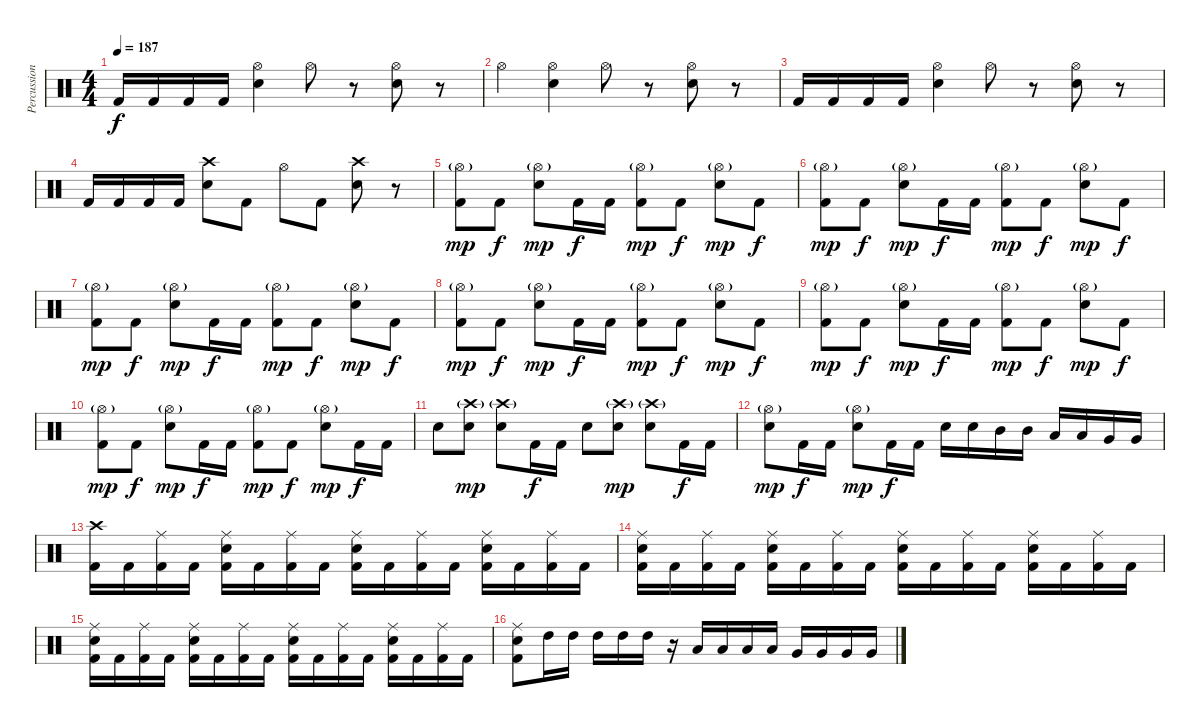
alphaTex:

\track ("Percussion" "Percussion") {instrument percussion}
\staff {score}
\articulation defaults
\ts (4 4)
\tempo 187
\clef neutral
\ks c "Kick (hit) 2".16{dy f} "Kick (hit) 2".16 "Kick (hit) 2".16 "Kick (hit) 2".16
("Snare (hit) 2" "Hi-Hat (open)").4 "Hi-Hat (open)".8 r.8 ("Snare (hit) 2" "Hi-Hat (open)").8 r.8 |
"Hi-Hat (open)".4 ("Snare (hit) 2" "Hi-Hat (open)").4 "Hi-Hat (open)".8 r.8 ("Snare (hit) 2" "Hi-Hat (open)").8 r.8 |
"Kick (hit) 2".16 "Kick (hit) 2".16 "Kick (hit) 2".16 "Kick (hit) 2".16 ("Snare (hit) 2" "Hi-Hat (open)").4 "Hi-Hat (open)".8 r.8 ("Snare (hit) 2" "Hi-Hat (open)").8 r.8 |
"Kick (hit) 2".16 "Kick (hit) 2".16 "Kick (hit) 2".16 "Kick (hit) 2".16 ("Snare (hit) 2" "Crash high (hit)").8 "Kick (hit) 2".8 "Hi-Hat (open)".8 "Kick (hit) 2".8 ("Snare (hit) 2" "Crash high (hit)").8 r.8 |
("Kick (hit) 2" "Hi-Hat (open)"{g}).8{dy mp volume 13} "Kick (hit) 2".8{dy f} ("Snare (hit) 2" "Hi-Hat (open)"{g}).8{dy mp} "Kick (hit) 2".16{dy f} "Kick (hit) 2".16 ("Kick (hit) 2" "Hi-Hat (open)"{g}).8{dy mp} "Kick (hit) 2".8{dy f} ("Snare (hit) 2" "Hi-Hat (open)"{g}).8{dy mp} "Kick (hit) 2".8{dy f} |
("Kick (hit) 2" "Hi-Hat (open)"{g}).8{dy mp} "Kick (hit) 2".8{dy f} ("Snare (hit) 2" "Hi-Hat (open)"{g}).8{dy mp} "Kick (hit) 2".16{dy f} "Kick (hit) 2".16 ("Kick (hit) 2" "Hi-Hat (open)"{g}).8{dy mp} "Kick (hit) 2".8{dy f} ("Snare (hit) 2" "Hi-Hat (open)"{g}).8{dy mp} "Kick (hit) 2".8{dy f} |
("Kick (hit) 2" "Hi-Hat (open)"{g}).8{dy mp} "Kick (hit) 2".8{dy f} ("Snare (hit) 2" "Hi-Hat (open)"{g}).8{dy mp} "Kick (hit) 2".16{dy f} "Kick (hit) 2".16 ("Kick (hit) 2" "Hi-Hat (open)"{g}).8{dy mp} "Kick (hit) 2".8{dy f} ("Snare (hit) 2" "Hi-Hat (open)"{g}).8{dy mp} "Kick (hit) 2".8{dy f} |
("Kick (hit) 2" "Hi-Hat (open)"{g}).8{dy mp} "Kick (hit) 2".8{dy f} ("Snare (hit) 2" "Hi-Hat (open)"{g}).8{dy mp} "Kick (hit) 2".16{dy f} "Kick (hit) 2".16 ("Kick (hit) 2" "Hi-Hat (open)"{g}).8{dy mp} "Kick (hit) 2".8{dy f} ("Snare (hit) 2" "Hi-Hat (open)"{g}).8{dy mp} "Kick (hit) 2".8{dy f} |
("Kick (hit) 2" "Hi-Hat (open)"{g}).8{dy mp} "Kick (hit) 2".8{dy f} ("Snare (hit) 2" "Hi-Hat (open)"{g}).8{dy mp} "Kick (hit) 2".16{dy f} "Kick (hit) 2".16 ("Kick (hit) 2" "Hi-Hat (open)"{g}).8{dy mp} "Kick (hit) 2".8{dy f} ("Snare (hit) 2" "Hi-Hat (open)"{g}).8{dy mp} "Kick (hit) 2".8{dy f} |
("Kick (hit) 2" "Hi-Hat (open)"{g}).8{dy mp} "Kick (hit) 2".8{dy f} ("Snare (hit) 2" "Hi-Hat (open)"{g}).8{dy mp} "Kick (hit) 2".16{dy f} "Kick (hit) 2".16 ("Kick (hit) 2" "Hi-Hat (open)"{g}).8{dy mp} "Kick (hit) 2".8{dy f} ("Snare (hit) 2" "Hi-Hat (open)"{g}).8{dy mp} "Kick (hit) 2".16{dy f} "Kick (hit) 2".16 |
"Snare (hit) 2".8 ("Crash high (hit)"{g} "Snare (hit) 2").8{dy mp} ("Crash high (hit)"{g} "Snare (hit) 2").8 "Kick (hit) 2".16{dy f} "Kick (hit) 2".16 "Snare (hit) 2".8 ("Crash high (hit)"{g} "Snare (hit) 2").8{dy mp} ("Crash high (hit)"{g} "Snare (hit) 2").8 "Kick (hit) 2".16{dy f} "Kick (hit) 2".16 |
("Snare (hit) 2" "Hi-Hat (open)"{g}).8{dy mp} "Kick (hit) 2".16{dy f} "Kick (hit) 2".16 ("Snare (hit) 2" "Hi-Hat (open)"{g}).8{dy mp} "Kick (hit) 2".16{dy f} "Kick (hit) 2".16 "Snare (hit) 2".16 "Snare (hit) 2".16 "Mid Tom (hit)".16 "Mid Tom (hit)".16 "Low Tom (hit)".16 "Low Tom (hit)".16 "Very Low Tom (hit)".16 "Very Low Tom (hit)".16 |
("Kick (hit) 2" "Crash high (hit)").16 "Kick (hit) 2".16 ("Kick (hit) 2" "Ride (middle)").16 "Kick (hit) 2".16 ("Kick (hit) 2" "Snare (hit) 2" "Ride (middle)").16 "Kick (hit) 2".16 ("Kick (hit) 2" "Ride (middle)").16 "Kick (hit) 2".16 ("Kick (hit) 2" "Snare (hit) 2" "Ride (middle)").16 "Kick (hit) 2".16 ("Kick (hit) 2" "Ride (middle)").16 "Kick (hit) 2".16 ("Kick (hit) 2" "Snare (hit) 2" "Ride (middle)").16 "Kick (hit) 2".16 ("Kick (hit) 2" "Ride (middle)").16 "Kick (hit) 2".16 |
("Kick (hit) 2" "Snare (hit) 2" "Ride (middle)").16 "Kick (hit) 2".16 ("Kick (hit) 2" "Ride (middle)").16 "Kick (hit) 2".16 ("Kick (hit) 2" "Snare (hit) 2" "Ride (middle)").16 "Kick (hit) 2".16 ("Kick (hit) 2" "Ride (middle)").16 "Kick (hit) 2".16 ("Kick (hit) 2" "Snare (hit) 2" "Ride (middle)").16 "Kick (hit) 2".16 ("Kick (hit) 2" "Ride (middle)").16 "Kick (hit) 2".16 ("Kick (hit) 2" "Snare (hit) 2" "Ride (middle)").16 "Kick (hit) 2".16 ("Kick (hit) 2" "Ride (middle)").16 "Kick (hit) 2".16 |
("Kick (hit) 2" "Snare (hit) 2" "Ride (middle)").16 "Kick (hit) 2".16 ("Kick (hit) 2" "Ride (middle)").16 "Kick (hit) 2".16 ("Kick (hit) 2" "Snare (hit) 2" "Ride (middle)").16 "Kick (hit) 2".16 ("Kick (hit) 2" "Ride (middle)").16 "Kick (hit) 2".16 ("Kick (hit) 2" "Snare (hit) 2" "Ride (middle)").16 "Kick (hit) 2".16 ("Kick (hit) 2" "Ride (middle)").16 "Kick (hit) 2".16 ("Kick (hit) 2" "Snare (hit) 2" "Ride (middle)").16 "Kick (hit) 2".16 ("Kick (hit) 2" "Ride (middle)").16 "Kick (hit) 2".16 |
("Kick (hit) 2" "Snare (hit) 2" "Ride (middle)").8 "High Tom (hit)".16 "High Tom (hit)".16 "High Tom (hit)".16 "High Tom (hit)".16 "High Tom (hit)".16 r.16 "Low Tom (hit)".16 "Low Tom (hit)".16 "Low Tom (hit)".16 "Low Tom (hit)".16 "Very Low Tom (hit)".16 "Very Low Tom (hit)".16 "Very Low Tom (hit)".16 "Very Low Tom (hit)".16
